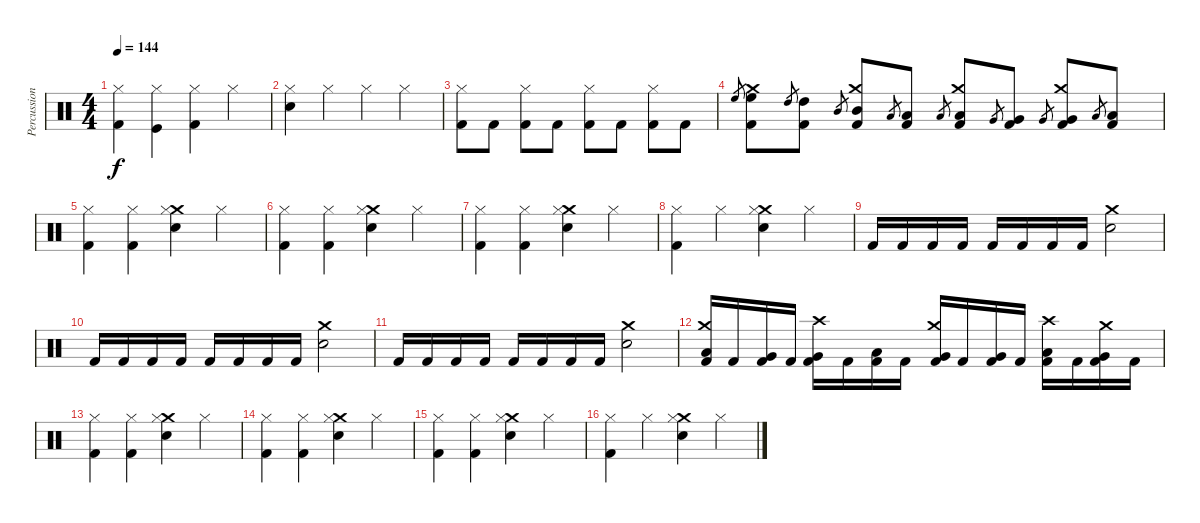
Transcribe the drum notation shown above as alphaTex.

\track ("Percussion" "Percussion") {instrument percussion}
\staff {score}
\articulation defaults
\ts (4 4)
\tempo 144
\clef neutral
\ks c
("Hi-Hat (closed)" "Kick (hit) 2").4{dy f} ("Hi-Hat (closed)" "Kick (hit)").4 ("Hi-Hat (closed)" "Kick (hit) 2").4 "Hi-Hat (closed)".4 |
("Hi-Hat (closed)" "Electric Snare (hit)").4 "Hi-Hat (closed)".4 "Hi-Hat (closed)".4 "Hi-Hat (closed)".4 |
("Hi-Hat (closed)" "Kick (hit) 2").8 "Kick (hit) 2".8 ("Hi-Hat (closed)" "Kick (hit) 2").8 "Kick (hit) 2".8 ("Hi-Hat (closed)" "Kick (hit) 2").8 "Kick (hit) 2".8 ("Hi-Hat (closed)" "Kick (hit) 2").8 "Kick (hit) 2".8 |
"High Floor Tom (hit)".8{gr} ("Crash medium (hit)" "High Floor Tom (hit)" "Kick (hit) 2").8 "High Tom (hit)".8{gr} ("High Tom (hit)" "Kick (hit) 2").8 "Mid Tom (hit)".8{gr} ("Crash medium (hit)" "Mid Tom (hit)" "Kick (hit) 2").8 "Low Tom (hit)".8{gr} ("Low Tom (hit)" "Kick (hit) 2").8 "Low Tom (hit)".8{gr} ("Crash medium (hit)" "Low Tom (hit)" "Kick (hit) 2").8 "Very Low Tom (hit)".8{gr} ("Very Low Tom (hit)" "Kick (hit) 2").8 "Very Low Tom (hit)".8{gr} ("Crash medium (hit)" "Very Low Tom (hit)" "Kick (hit) 2").8 "Low Floor Tom (hit)".8{gr} ("Low Floor Tom (hit)" "Kick (hit) 2").8 |
("Hi-Hat (closed)" "Kick (hit) 2").4 ("Hi-Hat (closed)" "Kick (hit) 2").4 ("Crash medium (hit)" "Hi-Hat (closed)" "Electric Snare (hit)").4 "Hi-Hat (closed)".4 |
("Hi-Hat (closed)" "Kick (hit) 2").4 ("Hi-Hat (closed)" "Kick (hit) 2").4 ("Crash medium (hit)" "Hi-Hat (closed)" "Electric Snare (hit)").4 "Hi-Hat (closed)".4 |
("Hi-Hat (closed)" "Kick (hit) 2").4 ("Hi-Hat (closed)" "Kick (hit) 2").4 ("Crash medium (hit)" "Hi-Hat (closed)" "Electric Snare (hit)").4 "Hi-Hat (closed)".4 |
("Hi-Hat (closed)" "Kick (hit) 2").4 "Hi-Hat (closed)".4 ("Crash medium (hit)" "Hi-Hat (closed)" "Electric Snare (hit)").4 "Hi-Hat (closed)".4 |
"Kick (hit) 2".16 "Kick (hit) 2".16 "Kick (hit) 2".16 "Kick (hit) 2".16 "Kick (hit) 2".16 "Kick (hit) 2".16 "Kick (hit) 2".16 "Kick (hit) 2".16 ("Crash medium (hit)" "Electric Snare (hit)").2 |
"Kick (hit) 2".16 "Kick (hit) 2".16 "Kick (hit) 2".16 "Kick (hit) 2".16 "Kick (hit) 2".16 "Kick (hit) 2".16 "Kick (hit) 2".16 "Kick (hit) 2".16 ("Crash medium (hit)" "Electric Snare (hit)").2 |
"Kick (hit) 2".16 "Kick (hit) 2".16 "Kick (hit) 2".16 "Kick (hit) 2".16 "Kick (hit) 2".16 "Kick (hit) 2".16 "Kick (hit) 2".16 "Kick (hit) 2".16 ("Crash medium (hit)" "Electric Snare (hit)").2 |
("Crash medium (hit)" "Low Tom (hit)" "Kick (hit) 2").16 "Kick (hit) 2".16 ("Very Low Tom (hit)" "Kick (hit) 2").16 "Kick (hit) 2".16 ("Crash high (hit)" "Very Low Tom (hit)" "Kick (hit) 2").16 "Kick (hit) 2".16 ("Low Tom (hit)" "Kick (hit) 2").16 "Kick (hit) 2".16 ("Crash medium (hit)" "Very Low Tom (hit)" "Kick (hit) 2").16 "Kick (hit) 2".16 ("Very Low Tom (hit)" "Kick (hit) 2").16 "Kick (hit) 2".16 ("Crash high (hit)" "Low Tom (hit)" "Kick (hit) 2").16 "Kick (hit) 2".16 ("Crash medium (hit)" "Very Low Tom (hit)" "Kick (hit) 2").16 "Kick (hit) 2".16 |
("Hi-Hat (closed)" "Kick (hit) 2").4 ("Hi-Hat (closed)" "Kick (hit) 2").4 ("Crash medium (hit)" "Hi-Hat (closed)" "Electric Snare (hit)").4 "Hi-Hat (closed)".4 |
("Hi-Hat (closed)" "Kick (hit) 2").4 ("Hi-Hat (closed)" "Kick (hit) 2").4 ("Crash medium (hit)" "Hi-Hat (closed)" "Electric Snare (hit)").4 "Hi-Hat (closed)".4 |
("Hi-Hat (closed)" "Kick (hit) 2").4 ("Hi-Hat (closed)" "Kick (hit) 2").4 ("Crash medium (hit)" "Hi-Hat (closed)" "Electric Snare (hit)").4 "Hi-Hat (closed)".4 |
("Hi-Hat (closed)" "Kick (hit) 2").4 "Hi-Hat (closed)".4 ("Crash medium (hit)" "Hi-Hat (closed)" "Electric Snare (hit)").4 "Hi-Hat (closed)".4
